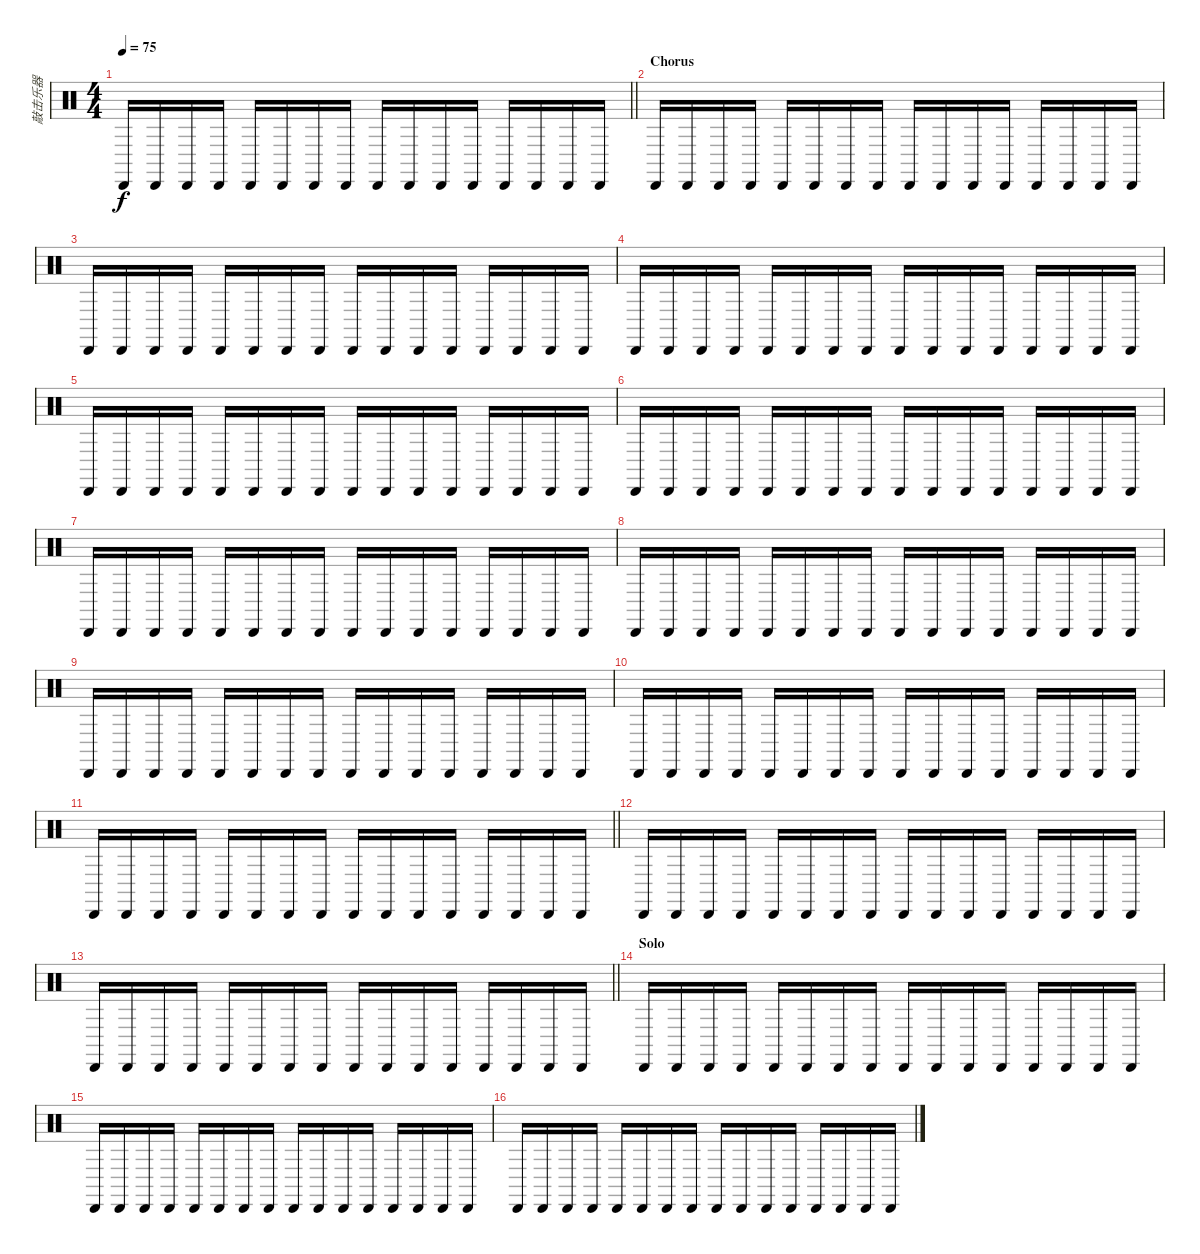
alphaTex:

\track ("敲击乐器" "敲击乐器") {instrument percussion}
\staff {score}
\articulation defaults
\ts (4 4)
\tempo 75
\clef neutral
\barLineRight lightlight
\ks c "Cabasa (hit)".16{dy f} "Cabasa (hit)".16 "Cabasa (hit)".16 "Cabasa (hit)".16 "Cabasa (hit)".16 "Cabasa (hit)".16 "Cabasa (hit)".16 "Cabasa (hit)".16 "Cabasa (hit)".16 "Cabasa (hit)".16 "Cabasa (hit)".16 "Cabasa (hit)".16 "Cabasa (hit)".16 "Cabasa (hit)".16 "Cabasa (hit)".16 "Cabasa (hit)".16
|
\section ("" "Chorus")
"Cabasa (hit)".16 "Cabasa (hit)".16 "Cabasa (hit)".16 "Cabasa (hit)".16 "Cabasa (hit)".16 "Cabasa (hit)".16 "Cabasa (hit)".16 "Cabasa (hit)".16 "Cabasa (hit)".16 "Cabasa (hit)".16 "Cabasa (hit)".16 "Cabasa (hit)".16 "Cabasa (hit)".16 "Cabasa (hit)".16 "Cabasa (hit)".16 "Cabasa (hit)".16 |
"Cabasa (hit)".16 "Cabasa (hit)".16 "Cabasa (hit)".16 "Cabasa (hit)".16 "Cabasa (hit)".16 "Cabasa (hit)".16 "Cabasa (hit)".16 "Cabasa (hit)".16 "Cabasa (hit)".16 "Cabasa (hit)".16 "Cabasa (hit)".16 "Cabasa (hit)".16 "Cabasa (hit)".16 "Cabasa (hit)".16 "Cabasa (hit)".16 "Cabasa (hit)".16 |
"Cabasa (hit)".16 "Cabasa (hit)".16 "Cabasa (hit)".16 "Cabasa (hit)".16 "Cabasa (hit)".16 "Cabasa (hit)".16 "Cabasa (hit)".16 "Cabasa (hit)".16 "Cabasa (hit)".16 "Cabasa (hit)".16 "Cabasa (hit)".16 "Cabasa (hit)".16 "Cabasa (hit)".16 "Cabasa (hit)".16 "Cabasa (hit)".16 "Cabasa (hit)".16 |
"Cabasa (hit)".16 "Cabasa (hit)".16 "Cabasa (hit)".16 "Cabasa (hit)".16 "Cabasa (hit)".16 "Cabasa (hit)".16 "Cabasa (hit)".16 "Cabasa (hit)".16 "Cabasa (hit)".16 "Cabasa (hit)".16 "Cabasa (hit)".16 "Cabasa (hit)".16 "Cabasa (hit)".16 "Cabasa (hit)".16 "Cabasa (hit)".16 "Cabasa (hit)".16 |
"Cabasa (hit)".16 "Cabasa (hit)".16 "Cabasa (hit)".16 "Cabasa (hit)".16 "Cabasa (hit)".16 "Cabasa (hit)".16 "Cabasa (hit)".16 "Cabasa (hit)".16 "Cabasa (hit)".16 "Cabasa (hit)".16 "Cabasa (hit)".16 "Cabasa (hit)".16 "Cabasa (hit)".16 "Cabasa (hit)".16 "Cabasa (hit)".16 "Cabasa (hit)".16 |
"Cabasa (hit)".16 "Cabasa (hit)".16 "Cabasa (hit)".16 "Cabasa (hit)".16 "Cabasa (hit)".16 "Cabasa (hit)".16 "Cabasa (hit)".16 "Cabasa (hit)".16 "Cabasa (hit)".16 "Cabasa (hit)".16 "Cabasa (hit)".16 "Cabasa (hit)".16 "Cabasa (hit)".16 "Cabasa (hit)".16 "Cabasa (hit)".16 "Cabasa (hit)".16 |
"Cabasa (hit)".16 "Cabasa (hit)".16 "Cabasa (hit)".16 "Cabasa (hit)".16 "Cabasa (hit)".16 "Cabasa (hit)".16 "Cabasa (hit)".16 "Cabasa (hit)".16 "Cabasa (hit)".16 "Cabasa (hit)".16 "Cabasa (hit)".16 "Cabasa (hit)".16 "Cabasa (hit)".16 "Cabasa (hit)".16 "Cabasa (hit)".16 "Cabasa (hit)".16 |
"Cabasa (hit)".16 "Cabasa (hit)".16 "Cabasa (hit)".16 "Cabasa (hit)".16 "Cabasa (hit)".16 "Cabasa (hit)".16 "Cabasa (hit)".16 "Cabasa (hit)".16 "Cabasa (hit)".16 "Cabasa (hit)".16 "Cabasa (hit)".16 "Cabasa (hit)".16 "Cabasa (hit)".16 "Cabasa (hit)".16 "Cabasa (hit)".16 "Cabasa (hit)".16 |
"Cabasa (hit)".16 "Cabasa (hit)".16 "Cabasa (hit)".16 "Cabasa (hit)".16 "Cabasa (hit)".16 "Cabasa (hit)".16 "Cabasa (hit)".16 "Cabasa (hit)".16 "Cabasa (hit)".16 "Cabasa (hit)".16 "Cabasa (hit)".16 "Cabasa (hit)".16 "Cabasa (hit)".16 "Cabasa (hit)".16 "Cabasa (hit)".16 "Cabasa (hit)".16 |
\barLineRight lightlight "Cabasa (hit)".16 "Cabasa (hit)".16 "Cabasa (hit)".16 "Cabasa (hit)".16 "Cabasa (hit)".16 "Cabasa (hit)".16 "Cabasa (hit)".16 "Cabasa (hit)".16 "Cabasa (hit)".16 "Cabasa (hit)".16 "Cabasa (hit)".16 "Cabasa (hit)".16 "Cabasa (hit)".16 "Cabasa (hit)".16 "Cabasa (hit)".16 "Cabasa (hit)".16
|
"Cabasa (hit)".16 "Cabasa (hit)".16 "Cabasa (hit)".16 "Cabasa (hit)".16 "Cabasa (hit)".16 "Cabasa (hit)".16 "Cabasa (hit)".16 "Cabasa (hit)".16 "Cabasa (hit)".16 "Cabasa (hit)".16 "Cabasa (hit)".16 "Cabasa (hit)".16 "Cabasa (hit)".16 "Cabasa (hit)".16 "Cabasa (hit)".16 "Cabasa (hit)".16 |
\barLineRight lightlight "Cabasa (hit)".16 "Cabasa (hit)".16 "Cabasa (hit)".16 "Cabasa (hit)".16 "Cabasa (hit)".16 "Cabasa (hit)".16 "Cabasa (hit)".16 "Cabasa (hit)".16 "Cabasa (hit)".16 "Cabasa (hit)".16 "Cabasa (hit)".16 "Cabasa (hit)".16 "Cabasa (hit)".16 "Cabasa (hit)".16 "Cabasa (hit)".16 "Cabasa (hit)".16
|
\section ("" "Solo")
"Cabasa (hit)".16 "Cabasa (hit)".16 "Cabasa (hit)".16 "Cabasa (hit)".16 "Cabasa (hit)".16 "Cabasa (hit)".16 "Cabasa (hit)".16 "Cabasa (hit)".16 "Cabasa (hit)".16 "Cabasa (hit)".16 "Cabasa (hit)".16 "Cabasa (hit)".16 "Cabasa (hit)".16 "Cabasa (hit)".16 "Cabasa (hit)".16 "Cabasa (hit)".16 |
"Cabasa (hit)".16 "Cabasa (hit)".16 "Cabasa (hit)".16 "Cabasa (hit)".16 "Cabasa (hit)".16 "Cabasa (hit)".16 "Cabasa (hit)".16 "Cabasa (hit)".16 "Cabasa (hit)".16 "Cabasa (hit)".16 "Cabasa (hit)".16 "Cabasa (hit)".16 "Cabasa (hit)".16 "Cabasa (hit)".16 "Cabasa (hit)".16 "Cabasa (hit)".16 |
"Cabasa (hit)".16 "Cabasa (hit)".16 "Cabasa (hit)".16 "Cabasa (hit)".16 "Cabasa (hit)".16 "Cabasa (hit)".16 "Cabasa (hit)".16 "Cabasa (hit)".16 "Cabasa (hit)".16 "Cabasa (hit)".16 "Cabasa (hit)".16 "Cabasa (hit)".16 "Cabasa (hit)".16 "Cabasa (hit)".16 "Cabasa (hit)".16 "Cabasa (hit)".16
